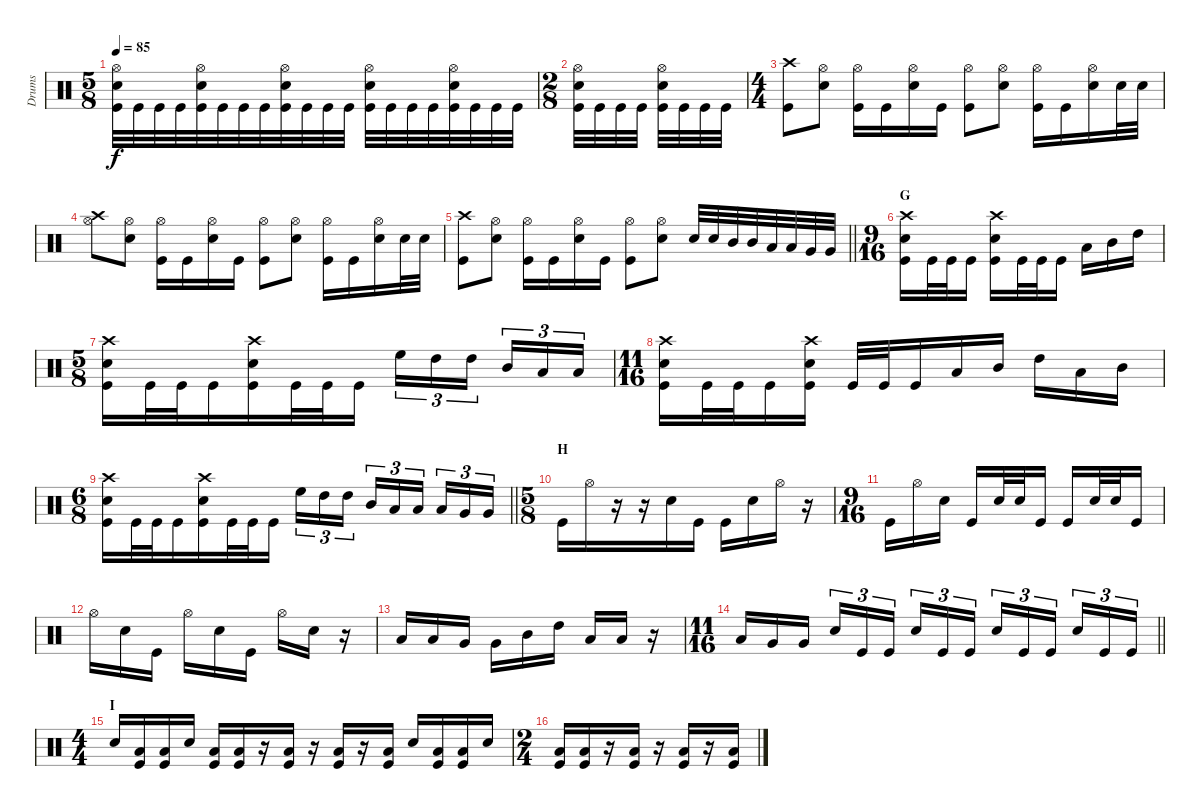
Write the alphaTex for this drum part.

\track ("Drums" "Drums") {instrument percussion}
\staff {score}
\articulation defaults
\ts (5 8)
\tempo 85
\clef neutral
\ks c
("Hi-Hat (open)" "Kick (hit)" "Snare (hit) 2").32{dy f} "Kick (hit)".32 "Kick (hit)".32 "Kick (hit)".32 ("Hi-Hat (open)" "Kick (hit)" "Snare (hit) 2").32 "Kick (hit)".32 "Kick (hit)".32 "Kick (hit)".32 ("Hi-Hat (open)" "Kick (hit)" "Snare (hit) 2").32 "Kick (hit)".32 "Kick (hit)".32 "Kick (hit)".32 ("Hi-Hat (open)" "Kick (hit)" "Snare (hit) 2").32 "Kick (hit)".32 "Kick (hit)".32 "Kick (hit)".32 ("Hi-Hat (open)" "Kick (hit)" "Snare (hit) 2").32 "Kick (hit)".32 "Kick (hit)".32 "Kick (hit)".32 |
\ts (2 8)
("Hi-Hat (open)" "Kick (hit)" "Snare (hit) 2").32 "Kick (hit)".32 "Kick (hit)".32 "Kick (hit)".32 ("Hi-Hat (open)" "Kick (hit)" "Snare (hit) 2").32 "Kick (hit)".32 "Kick (hit)".32 "Kick (hit)".32 |
\ts (4 4)
("Kick (hit)" "Crash high (hit)").8 ("Hi-Hat (open)" "Snare (hit) 2").8 ("Hi-Hat (open)" "Kick (hit)").16 "Kick (hit)".16 ("Snare (hit) 2" "Hi-Hat (open)").16 "Kick (hit)".16 ("Hi-Hat (open)" "Kick (hit)").8 ("Snare (hit) 2" "Hi-Hat (open)").8 ("Hi-Hat (open)" "Kick (hit)").16 "Kick (hit)".16 ("Snare (hit) 2" "Hi-Hat (open)").16 "Snare (hit) 2".32 "Snare (hit) 2".32 |
("Hi-Hat (open)" "Crash high (hit)").8 ("Hi-Hat (open)" "Snare (hit) 2").8 ("Hi-Hat (open)" "Kick (hit)").16 "Kick (hit)".16 ("Snare (hit) 2" "Hi-Hat (open)").16 "Kick (hit)".16 ("Hi-Hat (open)" "Kick (hit)").8 ("Snare (hit) 2" "Hi-Hat (open)").8 ("Hi-Hat (open)" "Kick (hit)").16 "Kick (hit)".16 ("Snare (hit) 2" "Hi-Hat (open)").16 "Snare (hit) 2".32 "Snare (hit) 2".32 |
\barLineRight lightlight
("Kick (hit)" "Crash high (hit)").8 ("Hi-Hat (open)" "Snare (hit) 2").8 ("Hi-Hat (open)" "Kick (hit)").16 "Kick (hit)".16 ("Snare (hit) 2" "Hi-Hat (open)").16 "Kick (hit)".16 ("Hi-Hat (open)" "Kick (hit)").8 ("Snare (hit) 2" "Hi-Hat (open)").8 "Snare (hit) 2".32 "Snare (hit) 2".32 "Mid Tom (hit)".32 "Mid Tom (hit)".32 "Low Tom (hit)".32 "Low Tom (hit)".32 "Very Low Tom (hit)".32 "Very Low Tom (hit)".32 |
\ts (9 16)
\section ("" "G")
("Kick (hit)" "Crash high (hit)" "Snare (hit) 2").16 "Kick (hit)".32 "Kick (hit)".32 "Kick (hit)".16 ("Kick (hit)" "Crash high (hit)" "Snare (hit) 2").16 "Kick (hit)".32 "Kick (hit)".32 "Kick (hit)".16 "Low Tom (hit)".16 "Mid Tom (hit)".16 "High Tom (hit)".16 |
\ts (5 8)
("Kick (hit)" "Crash high (hit)" "Snare (hit) 2").16 "Kick (hit)".32 "Kick (hit)".32 "Kick (hit)".16 ("Kick (hit)" "Crash high (hit)" "Snare (hit) 2").16 "Kick (hit)".32 "Kick (hit)".32 "Kick (hit)".16 "High Floor Tom (hit)".16{tu (3 2)} "High Tom (hit)".16{tu (3 2)} "High Tom (hit)".16{tu (3 2)} "Mid Tom (hit)".16{tu (3 2)} "Low Tom (hit)".16{tu (3 2)} "Low Tom (hit)".16{tu (3 2)} |
\ts (11 16)
("Kick (hit)" "Crash high (hit)" "Snare (hit) 2").16 "Kick (hit)".32 "Kick (hit)".32 "Kick (hit)".16 ("Kick (hit)" "Crash high (hit)" "Snare (hit) 2").16 "Kick (hit)".32 "Kick (hit)".32 "Kick (hit)".16 "Low Tom (hit)".16 "Mid Tom (hit)".16 "High Tom (hit)".16 "Low Tom (hit)".16 "Mid Tom (hit)".16 |
\ts (6 8)
\barLineRight lightlight
("Kick (hit)" "Crash high (hit)" "Snare (hit) 2").16 "Kick (hit)".32 "Kick (hit)".32 "Kick (hit)".16 ("Kick (hit)" "Crash high (hit)" "Snare (hit) 2").16 "Kick (hit)".32 "Kick (hit)".32 "Kick (hit)".16 "High Floor Tom (hit)".16{tu (3 2)} "High Tom (hit)".16{tu (3 2)} "High Tom (hit)".16{tu (3 2) beam splitsecondary} "Mid Tom (hit)".16{tu (3 2)} "Low Tom (hit)".16{tu (3 2)} "Low Tom (hit)".16{tu (3 2) beam splitsecondary} "Low Tom (hit)".16{tu (3 2)} "Very Low Tom (hit)".16{tu (3 2)} "Very Low Tom (hit)".16{tu (3 2)} |
\ts (5 8)
\section ("" "H")
"Kick (hit)".16 "Hi-Hat (open)".16 r.16 r.16 "Snare (hit) 2".16 "Kick (hit)".16 "Kick (hit)".16 "Snare (hit) 2".16 "Hi-Hat (open)".16 r.16 |
\ts (9 16)
"Kick (hit)".16 "Hi-Hat (open)".16 "Snare (hit) 2".16 "Kick (hit)".16 "Snare (hit) 2".32 "Snare (hit) 2".32 "Kick (hit)".16 "Kick (hit)".16 "Snare (hit) 2".32 "Snare (hit) 2".32 "Kick (hit)".16 |
"Hi-Hat (open)".16 "Snare (hit) 2".16 "Kick (hit)".16 "Hi-Hat (open)".16 "Snare (hit) 2".16 "Kick (hit)".16 "Hi-Hat (open)".16 "Snare (hit) 2".16 r.16 |
"Low Tom (hit)".16 "Low Tom (hit)".16 "Very Low Tom (hit)".16 "Very Low Tom (hit)".16 "Mid Tom (hit)".16 "High Tom (hit)".16 "Low Tom (hit)".16 "Low Tom (hit)".16 r.16 |
\ts (11 16)
\barLineRight lightlight "Low Tom (hit)".16 "Very Low Tom (hit)".16 "Very Low Tom (hit)".16 "Snare (hit) 2".16{tu (3 2)} "Kick (hit)".16{tu (3 2)} "Kick (hit)".16{tu (3 2)} "Snare (hit) 2".16{tu (3 2)} "Kick (hit)".16{tu (3 2)} "Kick (hit)".16{tu (3 2)} "Snare (hit) 2".16{tu (3 2)} "Kick (hit)".16{tu (3 2)} "Kick (hit)".16{tu (3 2)} "Snare (hit) 2".16{tu (3 2)} "Kick (hit)".16{tu (3 2)} "Kick (hit)".16{tu (3 2)}
|
\ts (4 4)
\section ("" "I")
"Snare (hit) 2".16 ("Kick (hit)" "Low Floor Tom (hit)").16 ("Kick (hit)" "Low Floor Tom (hit)").16 "Snare (hit) 2".16 ("Kick (hit)" "Low Floor Tom (hit)").16 ("Kick (hit)" "Low Floor Tom (hit)").16 r.16 ("Kick (hit)" "Low Floor Tom (hit)").16 r.16 ("Kick (hit)" "Low Floor Tom (hit)").16 r.16 ("Kick (hit)" "Low Floor Tom (hit)").16 "Snare (hit) 2".16 ("Kick (hit)" "Low Floor Tom (hit)").16 ("Kick (hit)" "Low Floor Tom (hit)").16 "Snare (hit) 2".16 |
\ts (2 4)
("Kick (hit)" "Low Floor Tom (hit)").16 ("Kick (hit)" "Low Floor Tom (hit)").16 r.16 ("Kick (hit)" "Low Floor Tom (hit)").16 r.16 ("Kick (hit)" "Low Floor Tom (hit)").16 r.16 ("Kick (hit)" "Low Floor Tom (hit)").16
